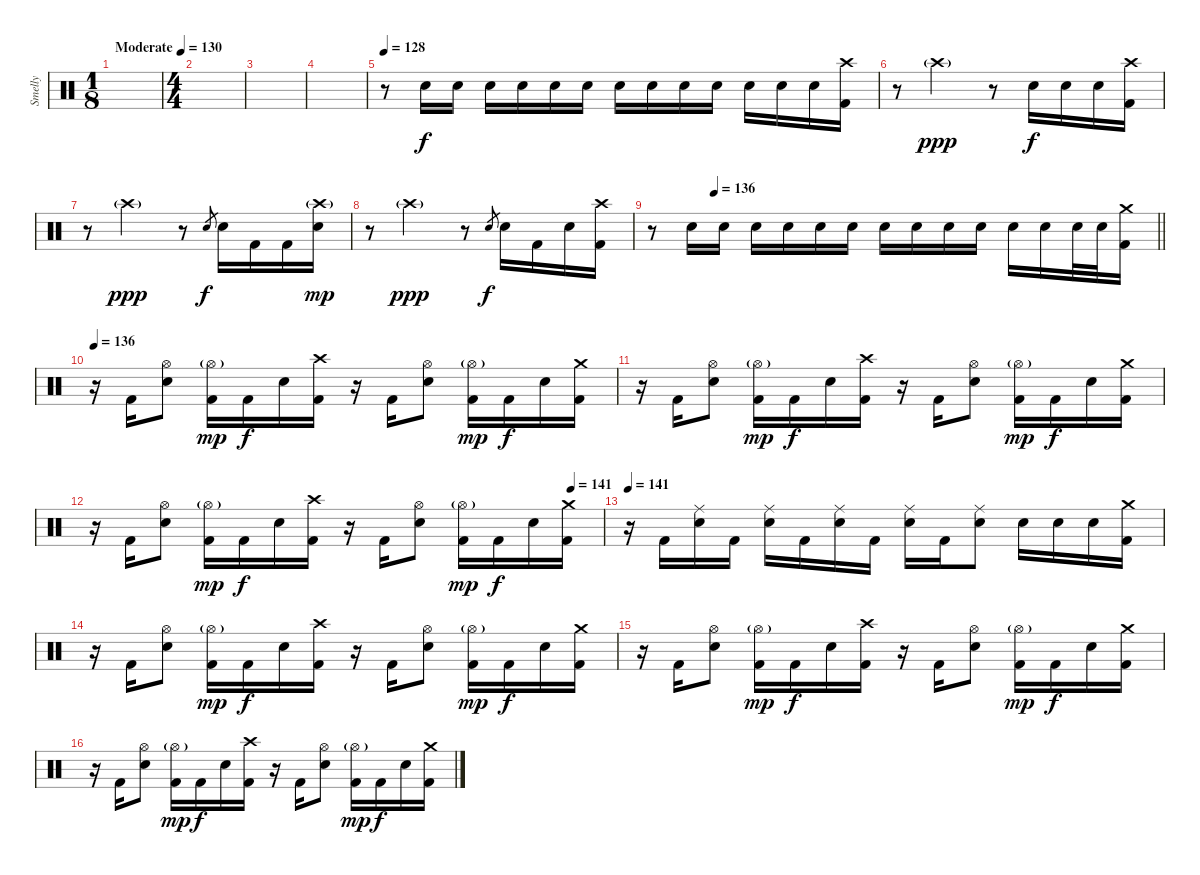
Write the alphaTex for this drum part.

\track ("Smelly" "Smelly") {instrument percussion}
\staff {score}
\articulation defaults
\ts (1 8)
\tempo (130 "Moderate")
\clef neutral
\ks c
|
\ts (4 4)
|
|
|
\tempo 128
r.8 "Electric Snare (hit)".16 "Electric Snare (hit)".16 "Electric Snare (hit)".16 "Electric Snare (hit)".16 "Electric Snare (hit)".16 "Electric Snare (hit)".16 "Electric Snare (hit)".16 "Electric Snare (hit)".16 "Electric Snare (hit)".16 "Electric Snare (hit)".16 "Electric Snare (hit)".16 "Electric Snare (hit)".16 "Electric Snare (hit)".16 ("Crash high (hit)" "Kick (hit) 2").16 |
r.8 "Crash high (hit)"{g}.2{dy ppp} r.8 "Electric Snare (hit)".16{dy f} "Electric Snare (hit)".16 "Electric Snare (hit)".16 ("Crash high (hit)" "Kick (hit) 2").16 |
r.8 "Crash high (hit)"{g}.2{dy ppp} r.8 "Electric Snare (hit)".8{gr dy f} "Electric Snare (hit)".16 "Kick (hit) 2".16 "Kick (hit) 2".16 ("Crash high (hit)"{g} "Electric Snare (hit)").16{dy mp} |
r.8 "Crash high (hit)"{g}.2{dy ppp} r.8 "Electric Snare (hit)".8{gr dy f} "Electric Snare (hit)".16 "Kick (hit) 2".16 "Electric Snare (hit)".16 ("Crash high (hit)" "Kick (hit) 2").16 |
\tempo (136 0.125)
\barLineRight lightlight
r.8 "Electric Snare (hit)".16 "Electric Snare (hit)".16 "Electric Snare (hit)".16 "Electric Snare (hit)".16 "Electric Snare (hit)".16 "Electric Snare (hit)".16 "Electric Snare (hit)".16 "Electric Snare (hit)".16 "Electric Snare (hit)".16 "Electric Snare (hit)".16 "Electric Snare (hit)".16 "Electric Snare (hit)".16 "Electric Snare (hit)".32 "Electric Snare (hit)".32 ("Crash medium (hit)" "Kick (hit) 2").16 |
\section ("" "")
\tempo 136
r.16 "Kick (hit) 2".16 ("Hi-Hat (open)" "Electric Snare (hit)").8 ("Hi-Hat (open)"{g} "Kick (hit) 2").16{dy mp} "Kick (hit) 2".16{dy f} "Electric Snare (hit)".16 ("Crash high (hit)" "Kick (hit) 2").16 r.16 "Kick (hit) 2".16 ("Hi-Hat (open)" "Electric Snare (hit)").8 ("Hi-Hat (open)"{g} "Kick (hit) 2").16{dy mp} "Kick (hit) 2".16{dy f} "Electric Snare (hit)".16 ("Crash medium (hit)" "Kick (hit) 2").16 |
r.16 "Kick (hit) 2".16 ("Hi-Hat (open)" "Electric Snare (hit)").8 ("Hi-Hat (open)"{g} "Kick (hit) 2").16{dy mp} "Kick (hit) 2".16{dy f} "Electric Snare (hit)".16 ("Crash high (hit)" "Kick (hit) 2").16 r.16 "Kick (hit) 2".16 ("Hi-Hat (open)" "Electric Snare (hit)").8 ("Hi-Hat (open)"{g} "Kick (hit) 2").16{dy mp} "Kick (hit) 2".16{dy f} "Electric Snare (hit)".16 ("Crash medium (hit)" "Kick (hit) 2").16 |
\tempo (141 0.9375)
r.16 "Kick (hit) 2".16 ("Hi-Hat (open)" "Electric Snare (hit)").8 ("Hi-Hat (open)"{g} "Kick (hit) 2").16{dy mp} "Kick (hit) 2".16{dy f} "Electric Snare (hit)".16 ("Crash high (hit)" "Kick (hit) 2").16 r.16 "Kick (hit) 2".16 ("Hi-Hat (open)" "Electric Snare (hit)").8 ("Hi-Hat (open)"{g} "Kick (hit) 2").16{dy mp} "Kick (hit) 2".16{dy f} "Electric Snare (hit)".16 ("Crash medium (hit)" "Kick (hit) 2").16 |
\tempo 141
r.16 "Kick (hit) 2".16 ("Ride (middle)" "Electric Snare (hit)").16 "Kick (hit) 2".16 ("Ride (middle)" "Electric Snare (hit)").16 "Kick (hit) 2".16 ("Ride (middle)" "Electric Snare (hit)").16 "Kick (hit) 2".16 ("Ride (middle)" "Electric Snare (hit)").16 "Kick (hit) 2".16 ("Ride (middle)" "Electric Snare (hit)").8 "Electric Snare (hit)".16 "Electric Snare (hit)".16 "Electric Snare (hit)".16 ("Crash medium (hit)" "Kick (hit) 2").16 |
r.16 "Kick (hit) 2".16 ("Hi-Hat (open)" "Electric Snare (hit)").8 ("Hi-Hat (open)"{g} "Kick (hit) 2").16{dy mp} "Kick (hit) 2".16{dy f} "Electric Snare (hit)".16 ("Crash high (hit)" "Kick (hit) 2").16 r.16 "Kick (hit) 2".16 ("Hi-Hat (open)" "Electric Snare (hit)").8 ("Hi-Hat (open)"{g} "Kick (hit) 2").16{dy mp} "Kick (hit) 2".16{dy f} "Electric Snare (hit)".16 ("Crash medium (hit)" "Kick (hit) 2").16 |
r.16 "Kick (hit) 2".16 ("Hi-Hat (open)" "Electric Snare (hit)").8 ("Hi-Hat (open)"{g} "Kick (hit) 2").16{dy mp} "Kick (hit) 2".16{dy f} "Electric Snare (hit)".16 ("Crash high (hit)" "Kick (hit) 2").16 r.16 "Kick (hit) 2".16 ("Hi-Hat (open)" "Electric Snare (hit)").8 ("Hi-Hat (open)"{g} "Kick (hit) 2").16{dy mp} "Kick (hit) 2".16{dy f} "Electric Snare (hit)".16 ("Crash medium (hit)" "Kick (hit) 2").16 |
r.16 "Kick (hit) 2".16 ("Hi-Hat (open)" "Electric Snare (hit)").8 ("Hi-Hat (open)"{g} "Kick (hit) 2").16{dy mp} "Kick (hit) 2".16{dy f} "Electric Snare (hit)".16 ("Crash high (hit)" "Kick (hit) 2").16 r.16 "Kick (hit) 2".16 ("Hi-Hat (open)" "Electric Snare (hit)").8 ("Hi-Hat (open)"{g} "Kick (hit) 2").16{dy mp} "Kick (hit) 2".16{dy f} "Electric Snare (hit)".16 ("Crash medium (hit)" "Kick (hit) 2").16
